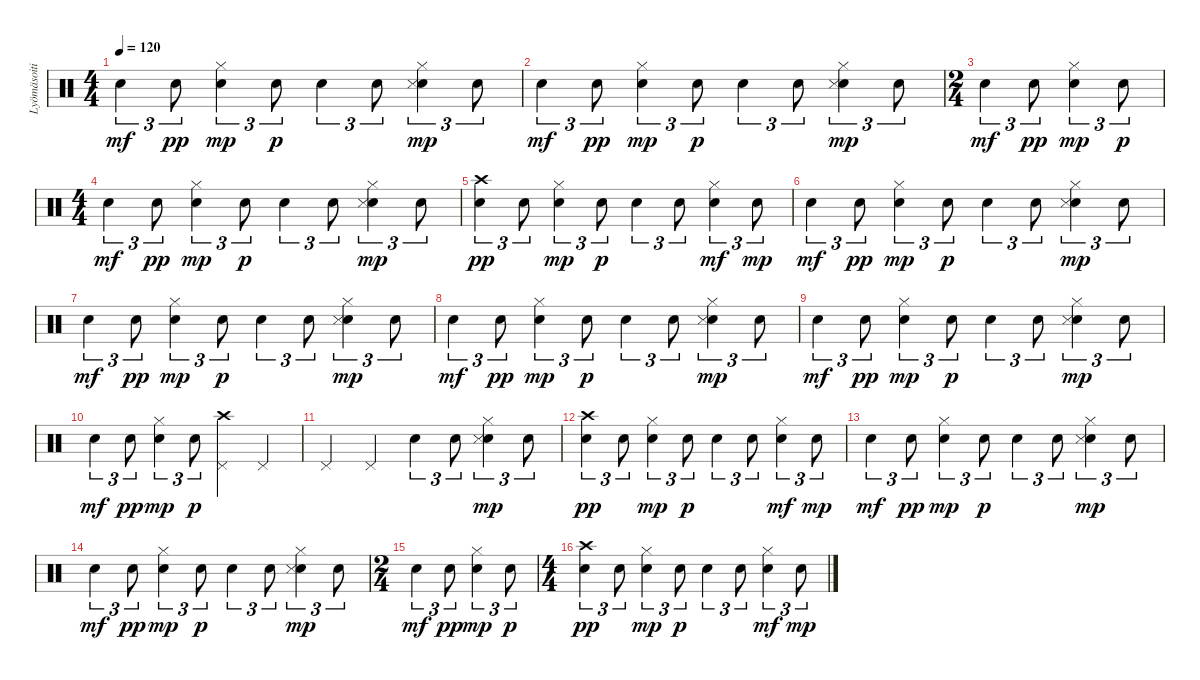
\track ("Lyömäsoitin" "Lyömäsoiti") {instrument percussion}
\staff {score}
\articulation defaults
\ts (4 4)
\tempo 120
\clef neutral
\ks c "Snare (hit) 2".4{tu (3 2) dy mf} "Snare (hit) 2".8{tu (3 2) dy pp}
("Snare (hit) 2" "Hi-Hat (closed)").4{tu (3 2) dy mp} "Snare (hit) 2".8{tu (3 2) dy p} "Snare (hit) 2".4{tu (3 2)} "Snare (hit) 2".8{tu (3 2)} ("Snare (hit) 2" "Hi-Hat (closed)" "Snare (side stick) 3").4{tu (3 2) dy mp} "Snare (hit) 2".8{tu (3 2)} |
"Snare (hit) 2".4{tu (3 2) dy mf} "Snare (hit) 2".8{tu (3 2) dy pp} ("Snare (hit) 2" "Hi-Hat (closed)").4{tu (3 2) dy mp} "Snare (hit) 2".8{tu (3 2) dy p} "Snare (hit) 2".4{tu (3 2)} "Snare (hit) 2".8{tu (3 2)} ("Snare (hit) 2" "Hi-Hat (closed)" "Snare (side stick) 3").4{tu (3 2) dy mp} "Snare (hit) 2".8{tu (3 2)} |
\ts (2 4)
"Snare (hit) 2".4{tu (3 2) dy mf} "Snare (hit) 2".8{tu (3 2) dy pp} ("Snare (hit) 2" "Hi-Hat (closed)").4{tu (3 2) dy mp} "Snare (hit) 2".8{tu (3 2) dy p} |
\ts (4 4)
"Snare (hit) 2".4{tu (3 2) dy mf} "Snare (hit) 2".8{tu (3 2) dy pp} ("Snare (hit) 2" "Hi-Hat (closed)").4{tu (3 2) dy mp} "Snare (hit) 2".8{tu (3 2) dy p} "Snare (hit) 2".4{tu (3 2)} "Snare (hit) 2".8{tu (3 2)} ("Snare (hit) 2" "Hi-Hat (closed)" "Snare (side stick) 3").4{tu (3 2) dy mp} "Snare (hit) 2".8{tu (3 2)} |
("Snare (hit) 2" "Crash high (hit)").4{tu (3 2) dy pp} "Snare (hit) 2".8{tu (3 2)} ("Snare (hit) 2" "Hi-Hat (closed)").4{tu (3 2) dy mp} "Snare (hit) 2".8{tu (3 2) dy p} "Snare (hit) 2".4{tu (3 2)} "Snare (hit) 2".8{tu (3 2)} ("Snare (hit) 2" "Hi-Hat (closed)").4{tu (3 2) dy mf} "Snare (hit) 2".8{tu (3 2) dy mp} |
"Snare (hit) 2".4{tu (3 2) dy mf} "Snare (hit) 2".8{tu (3 2) dy pp} ("Snare (hit) 2" "Hi-Hat (closed)").4{tu (3 2) dy mp} "Snare (hit) 2".8{tu (3 2) dy p} "Snare (hit) 2".4{tu (3 2)} "Snare (hit) 2".8{tu (3 2)} ("Snare (hit) 2" "Hi-Hat (closed)" "Snare (side stick) 3").4{tu (3 2) dy mp} "Snare (hit) 2".8{tu (3 2)} |
"Snare (hit) 2".4{tu (3 2) dy mf} "Snare (hit) 2".8{tu (3 2) dy pp} ("Snare (hit) 2" "Hi-Hat (closed)").4{tu (3 2) dy mp} "Snare (hit) 2".8{tu (3 2) dy p} "Snare (hit) 2".4{tu (3 2)} "Snare (hit) 2".8{tu (3 2)} ("Snare (hit) 2" "Hi-Hat (closed)" "Snare (side stick) 3").4{tu (3 2) dy mp} "Snare (hit) 2".8{tu (3 2)} |
"Snare (hit) 2".4{tu (3 2) dy mf} "Snare (hit) 2".8{tu (3 2) dy pp} ("Snare (hit) 2" "Hi-Hat (closed)").4{tu (3 2) dy mp} "Snare (hit) 2".8{tu (3 2) dy p} "Snare (hit) 2".4{tu (3 2)} "Snare (hit) 2".8{tu (3 2)} ("Snare (hit) 2" "Hi-Hat (closed)" "Snare (side stick) 3").4{tu (3 2) dy mp} "Snare (hit) 2".8{tu (3 2)} |
"Snare (hit) 2".4{tu (3 2) dy mf} "Snare (hit) 2".8{tu (3 2) dy pp} ("Snare (hit) 2" "Hi-Hat (closed)").4{tu (3 2) dy mp} "Snare (hit) 2".8{tu (3 2) dy p} "Snare (hit) 2".4{tu (3 2)} "Snare (hit) 2".8{tu (3 2)} ("Snare (hit) 2" "Hi-Hat (closed)" "Snare (side stick) 3").4{tu (3 2) dy mp} "Snare (hit) 2".8{tu (3 2)} |
"Snare (hit) 2".4{tu (3 2) dy mf} "Snare (hit) 2".8{tu (3 2) dy pp} ("Snare (hit) 2" "Hi-Hat (closed)").4{tu (3 2) dy mp} "Snare (hit) 2".8{tu (3 2) dy p} ("Pedal Hi-Hat (hit)" "Crash high (hit)").4 "Pedal Hi-Hat (hit)".4 |
"Pedal Hi-Hat (hit)".4 "Pedal Hi-Hat (hit)".4 "Snare (hit) 2".4{tu (3 2)} "Snare (hit) 2".8{tu (3 2)} ("Snare (hit) 2" "Hi-Hat (closed)" "Snare (side stick) 3").4{tu (3 2) dy mp} "Snare (hit) 2".8{tu (3 2)} |
("Snare (hit) 2" "Crash high (hit)").4{tu (3 2) dy pp} "Snare (hit) 2".8{tu (3 2)} ("Snare (hit) 2" "Hi-Hat (closed)").4{tu (3 2) dy mp} "Snare (hit) 2".8{tu (3 2) dy p} "Snare (hit) 2".4{tu (3 2)} "Snare (hit) 2".8{tu (3 2)} ("Snare (hit) 2" "Hi-Hat (closed)").4{tu (3 2) dy mf} "Snare (hit) 2".8{tu (3 2) dy mp} |
"Snare (hit) 2".4{tu (3 2) dy mf} "Snare (hit) 2".8{tu (3 2) dy pp} ("Snare (hit) 2" "Hi-Hat (closed)").4{tu (3 2) dy mp} "Snare (hit) 2".8{tu (3 2) dy p} "Snare (hit) 2".4{tu (3 2)} "Snare (hit) 2".8{tu (3 2)} ("Snare (hit) 2" "Hi-Hat (closed)" "Snare (side stick) 3").4{tu (3 2) dy mp} "Snare (hit) 2".8{tu (3 2)} |
"Snare (hit) 2".4{tu (3 2) dy mf} "Snare (hit) 2".8{tu (3 2) dy pp} ("Snare (hit) 2" "Hi-Hat (closed)").4{tu (3 2) dy mp} "Snare (hit) 2".8{tu (3 2) dy p} "Snare (hit) 2".4{tu (3 2)} "Snare (hit) 2".8{tu (3 2)} ("Snare (hit) 2" "Hi-Hat (closed)" "Snare (side stick) 3").4{tu (3 2) dy mp} "Snare (hit) 2".8{tu (3 2)} |
\ts (2 4)
"Snare (hit) 2".4{tu (3 2) dy mf} "Snare (hit) 2".8{tu (3 2) dy pp} ("Snare (hit) 2" "Hi-Hat (closed)").4{tu (3 2) dy mp} "Snare (hit) 2".8{tu (3 2) dy p} |
\ts (4 4)
("Snare (hit) 2" "Crash high (hit)").4{tu (3 2) dy pp} "Snare (hit) 2".8{tu (3 2)} ("Snare (hit) 2" "Hi-Hat (closed)").4{tu (3 2) dy mp} "Snare (hit) 2".8{tu (3 2) dy p} "Snare (hit) 2".4{tu (3 2)} "Snare (hit) 2".8{tu (3 2)} ("Snare (hit) 2" "Hi-Hat (closed)").4{tu (3 2) dy mf} "Snare (hit) 2".8{tu (3 2) dy mp}
